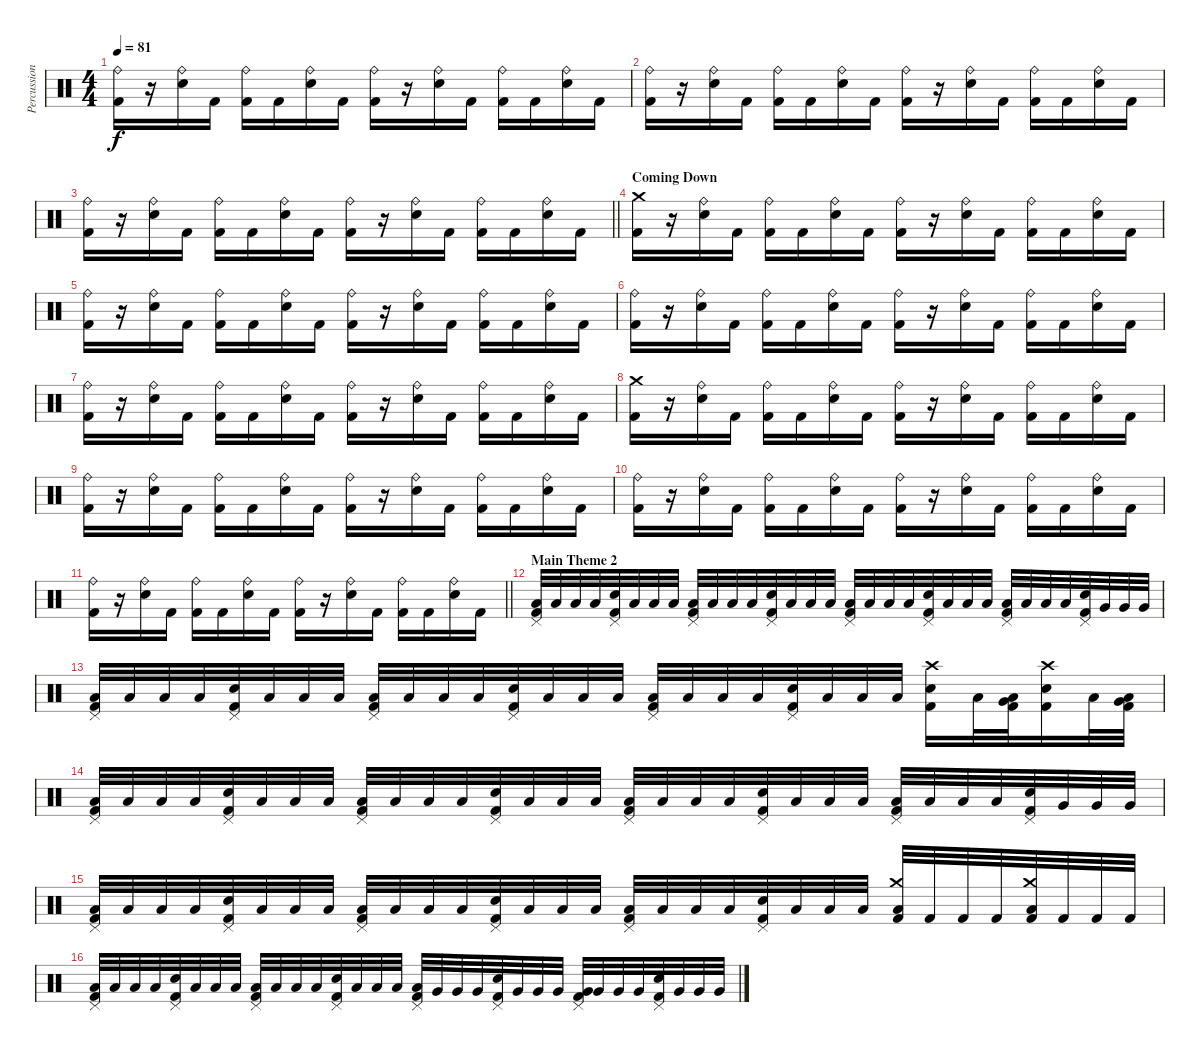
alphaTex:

\track ("Percussion" "Percussion") {instrument percussion}
\staff {score}
\articulation defaults
\ts (4 4)
\tempo 81
\clef neutral
\ks c
("Ride (bell)" "Kick (hit) 2").16{dy f} r.16 ("Ride (bell)" "Electric Snare (hit)").16 "Kick (hit) 2".16 ("Ride (bell)" "Kick (hit) 2").16 "Kick (hit) 2".16 ("Ride (bell)" "Electric Snare (hit)").16 "Kick (hit) 2".16 ("Ride (bell)" "Kick (hit) 2").16 r.16 ("Ride (bell)" "Electric Snare (hit)").16 "Kick (hit) 2".16 ("Ride (bell)" "Kick (hit) 2").16 "Kick (hit) 2".16 ("Ride (bell)" "Electric Snare (hit)").16 "Kick (hit) 2".16 |
("Ride (bell)" "Kick (hit) 2").16 r.16 ("Ride (bell)" "Electric Snare (hit)").16 "Kick (hit) 2".16 ("Ride (bell)" "Kick (hit) 2").16 "Kick (hit) 2".16 ("Ride (bell)" "Electric Snare (hit)").16 "Kick (hit) 2".16 ("Ride (bell)" "Kick (hit) 2").16 r.16 ("Ride (bell)" "Electric Snare (hit)").16 "Kick (hit) 2".16 ("Ride (bell)" "Kick (hit) 2").16 "Kick (hit) 2".16 ("Ride (bell)" "Electric Snare (hit)").16 "Kick (hit) 2".16 |
\barLineRight lightlight
("Ride (bell)" "Kick (hit) 2").16 r.16 ("Ride (bell)" "Electric Snare (hit)").16 "Kick (hit) 2".16 ("Ride (bell)" "Kick (hit) 2").16 "Kick (hit) 2".16 ("Ride (bell)" "Electric Snare (hit)").16 "Kick (hit) 2".16 ("Ride (bell)" "Kick (hit) 2").16 r.16 ("Ride (bell)" "Electric Snare (hit)").16 "Kick (hit) 2".16 ("Ride (bell)" "Kick (hit) 2").16 "Kick (hit) 2".16 ("Ride (bell)" "Electric Snare (hit)").16 "Kick (hit) 2".16 |
\section ("" "Coming Down")
("Crash medium (hit)" "Kick (hit) 2").16 r.16 ("Ride (bell)" "Electric Snare (hit)").16 "Kick (hit) 2".16 ("Ride (bell)" "Kick (hit) 2").16 "Kick (hit) 2".16 ("Ride (bell)" "Electric Snare (hit)").16 "Kick (hit) 2".16 ("Ride (bell)" "Kick (hit) 2").16 r.16 ("Ride (bell)" "Electric Snare (hit)").16 "Kick (hit) 2".16 ("Ride (bell)" "Kick (hit) 2").16 "Kick (hit) 2".16 ("Ride (bell)" "Electric Snare (hit)").16 "Kick (hit) 2".16 |
("Ride (bell)" "Kick (hit) 2").16 r.16 ("Ride (bell)" "Electric Snare (hit)").16 "Kick (hit) 2".16 ("Ride (bell)" "Kick (hit) 2").16 "Kick (hit) 2".16 ("Ride (bell)" "Electric Snare (hit)").16 "Kick (hit) 2".16 ("Ride (bell)" "Kick (hit) 2").16 r.16 ("Ride (bell)" "Electric Snare (hit)").16 "Kick (hit) 2".16 ("Ride (bell)" "Kick (hit) 2").16 "Kick (hit) 2".16 ("Ride (bell)" "Electric Snare (hit)").16 "Kick (hit) 2".16 |
("Ride (bell)" "Kick (hit) 2").16 r.16 ("Ride (bell)" "Electric Snare (hit)").16 "Kick (hit) 2".16 ("Ride (bell)" "Kick (hit) 2").16 "Kick (hit) 2".16 ("Ride (bell)" "Electric Snare (hit)").16 "Kick (hit) 2".16 ("Ride (bell)" "Kick (hit) 2").16 r.16 ("Ride (bell)" "Electric Snare (hit)").16 "Kick (hit) 2".16 ("Ride (bell)" "Kick (hit) 2").16 "Kick (hit) 2".16 ("Ride (bell)" "Electric Snare (hit)").16 "Kick (hit) 2".16 |
("Ride (bell)" "Kick (hit) 2").16 r.16 ("Ride (bell)" "Electric Snare (hit)").16 "Kick (hit) 2".16 ("Ride (bell)" "Kick (hit) 2").16 "Kick (hit) 2".16 ("Ride (bell)" "Electric Snare (hit)").16 "Kick (hit) 2".16 ("Ride (bell)" "Kick (hit) 2").16 r.16 ("Ride (bell)" "Electric Snare (hit)").16 "Kick (hit) 2".16 ("Ride (bell)" "Kick (hit) 2").16 "Kick (hit) 2".16 ("Ride (bell)" "Electric Snare (hit)").16 "Kick (hit) 2".16 |
("Crash medium (hit)" "Kick (hit) 2").16 r.16 ("Ride (bell)" "Electric Snare (hit)").16 "Kick (hit) 2".16 ("Ride (bell)" "Kick (hit) 2").16 "Kick (hit) 2".16 ("Ride (bell)" "Electric Snare (hit)").16 "Kick (hit) 2".16 ("Ride (bell)" "Kick (hit) 2").16 r.16 ("Ride (bell)" "Electric Snare (hit)").16 "Kick (hit) 2".16 ("Ride (bell)" "Kick (hit) 2").16 "Kick (hit) 2".16 ("Ride (bell)" "Electric Snare (hit)").16 "Kick (hit) 2".16 |
("Ride (bell)" "Kick (hit) 2").16 r.16 ("Ride (bell)" "Electric Snare (hit)").16 "Kick (hit) 2".16 ("Ride (bell)" "Kick (hit) 2").16 "Kick (hit) 2".16 ("Ride (bell)" "Electric Snare (hit)").16 "Kick (hit) 2".16 ("Ride (bell)" "Kick (hit) 2").16 r.16 ("Ride (bell)" "Electric Snare (hit)").16 "Kick (hit) 2".16 ("Ride (bell)" "Kick (hit) 2").16 "Kick (hit) 2".16 ("Ride (bell)" "Electric Snare (hit)").16 "Kick (hit) 2".16 |
("Ride (bell)" "Kick (hit) 2").16 r.16 ("Ride (bell)" "Electric Snare (hit)").16 "Kick (hit) 2".16 ("Ride (bell)" "Kick (hit) 2").16 "Kick (hit) 2".16 ("Ride (bell)" "Electric Snare (hit)").16 "Kick (hit) 2".16 ("Ride (bell)" "Kick (hit) 2").16 r.16 ("Ride (bell)" "Electric Snare (hit)").16 "Kick (hit) 2".16 ("Ride (bell)" "Kick (hit) 2").16 "Kick (hit) 2".16 ("Ride (bell)" "Electric Snare (hit)").16 "Kick (hit) 2".16 |
\barLineRight lightlight
("Ride (bell)" "Kick (hit) 2").16 r.16 ("Ride (bell)" "Electric Snare (hit)").16 "Kick (hit) 2".16 ("Ride (bell)" "Kick (hit) 2").16 "Kick (hit) 2".16 ("Ride (bell)" "Electric Snare (hit)").16 "Kick (hit) 2".16 ("Ride (bell)" "Kick (hit) 2").16 r.16 ("Ride (bell)" "Electric Snare (hit)").16 "Kick (hit) 2".16 ("Ride (bell)" "Kick (hit) 2").16 "Kick (hit) 2".16 ("Ride (bell)" "Electric Snare (hit)").16 "Kick (hit) 2".16 |
\section ("" "Main Theme 2")
("Pedal Hi-Hat (hit)" "Low Floor Tom (hit)" "Kick (hit) 2").32 "Low Floor Tom (hit)".32 "Low Floor Tom (hit)".32 "Low Floor Tom (hit)".32 ("Pedal Hi-Hat (hit)" "Electric Snare (hit)" "Kick (hit) 2").32 "Low Floor Tom (hit)".32 "Low Floor Tom (hit)".32 "Low Floor Tom (hit)".32 ("Pedal Hi-Hat (hit)" "Low Floor Tom (hit)" "Kick (hit) 2").32 "Low Floor Tom (hit)".32 "Low Floor Tom (hit)".32 "Low Floor Tom (hit)".32 ("Pedal Hi-Hat (hit)" "Electric Snare (hit)" "Kick (hit) 2").32 "Low Floor Tom (hit)".32 "Low Floor Tom (hit)".32 "Low Floor Tom (hit)".32 ("Pedal Hi-Hat (hit)" "Low Floor Tom (hit)" "Kick (hit) 2").32 "Low Floor Tom (hit)".32 "Low Floor Tom (hit)".32 "Low Floor Tom (hit)".32 ("Pedal Hi-Hat (hit)" "Electric Snare (hit)" "Kick (hit) 2").32 "Low Floor Tom (hit)".32 "Low Floor Tom (hit)".32 "Low Floor Tom (hit)".32 ("Pedal Hi-Hat (hit)" "Low Floor Tom (hit)" "Kick (hit) 2").32 "Low Floor Tom (hit)".32 "Low Floor Tom (hit)".32 "Low Floor Tom (hit)".32 ("Pedal Hi-Hat (hit)" "Electric Snare (hit)" "Kick (hit) 2").32 "Very Low Tom (hit)".32 "Very Low Tom (hit)".32 "Very Low Tom (hit)".32 |
("Pedal Hi-Hat (hit)" "Low Floor Tom (hit)" "Kick (hit) 2").32 "Low Floor Tom (hit)".32 "Low Floor Tom (hit)".32 "Low Floor Tom (hit)".32 ("Pedal Hi-Hat (hit)" "Electric Snare (hit)" "Kick (hit) 2").32 "Low Floor Tom (hit)".32 "Low Floor Tom (hit)".32 "Low Floor Tom (hit)".32 ("Pedal Hi-Hat (hit)" "Low Floor Tom (hit)" "Kick (hit) 2").32 "Low Floor Tom (hit)".32 "Low Floor Tom (hit)".32 "Low Floor Tom (hit)".32 ("Pedal Hi-Hat (hit)" "Electric Snare (hit)" "Kick (hit) 2").32 "Low Floor Tom (hit)".32 "Low Floor Tom (hit)".32 "Low Floor Tom (hit)".32 ("Pedal Hi-Hat (hit)" "Low Floor Tom (hit)" "Kick (hit) 2").32 "Low Floor Tom (hit)".32 "Low Floor Tom (hit)".32 "Low Floor Tom (hit)".32 ("Pedal Hi-Hat (hit)" "Electric Snare (hit)" "Kick (hit) 2").32 "Low Floor Tom (hit)".32 "Low Floor Tom (hit)".32 "Low Floor Tom (hit)".32 ("Crash high (hit)" "Electric Snare (hit)" "Kick (hit) 2").16 "Low Floor Tom (hit)".32 ("Very Low Tom (hit)" "Low Floor Tom (hit)" "Kick (hit) 2").32 ("Crash high (hit)" "Electric Snare (hit)" "Kick (hit) 2").16 "Low Floor Tom (hit)".32 ("Very Low Tom (hit)" "Low Floor Tom (hit)" "Kick (hit) 2").32 |
("Pedal Hi-Hat (hit)" "Low Floor Tom (hit)" "Kick (hit) 2").32 "Low Floor Tom (hit)".32 "Low Floor Tom (hit)".32 "Low Floor Tom (hit)".32 ("Pedal Hi-Hat (hit)" "Electric Snare (hit)" "Kick (hit) 2").32 "Low Floor Tom (hit)".32 "Low Floor Tom (hit)".32 "Low Floor Tom (hit)".32 ("Pedal Hi-Hat (hit)" "Low Floor Tom (hit)" "Kick (hit) 2").32 "Low Floor Tom (hit)".32 "Low Floor Tom (hit)".32 "Low Floor Tom (hit)".32 ("Pedal Hi-Hat (hit)" "Electric Snare (hit)" "Kick (hit) 2").32 "Low Floor Tom (hit)".32 "Low Floor Tom (hit)".32 "Low Floor Tom (hit)".32 ("Pedal Hi-Hat (hit)" "Low Floor Tom (hit)" "Kick (hit) 2").32 "Low Floor Tom (hit)".32 "Low Floor Tom (hit)".32 "Low Floor Tom (hit)".32 ("Pedal Hi-Hat (hit)" "Electric Snare (hit)" "Kick (hit) 2").32 "Low Floor Tom (hit)".32 "Low Floor Tom (hit)".32 "Low Floor Tom (hit)".32 ("Pedal Hi-Hat (hit)" "Low Floor Tom (hit)" "Kick (hit) 2").32 "Low Floor Tom (hit)".32 "Low Floor Tom (hit)".32 "Low Floor Tom (hit)".32 ("Pedal Hi-Hat (hit)" "Electric Snare (hit)" "Kick (hit) 2").32 "Very Low Tom (hit)".32 "Very Low Tom (hit)".32 "Very Low Tom (hit)".32 |
("Pedal Hi-Hat (hit)" "Low Floor Tom (hit)" "Kick (hit) 2").32 "Low Floor Tom (hit)".32 "Low Floor Tom (hit)".32 "Low Floor Tom (hit)".32 ("Pedal Hi-Hat (hit)" "Electric Snare (hit)" "Kick (hit) 2").32 "Low Floor Tom (hit)".32 "Low Floor Tom (hit)".32 "Low Floor Tom (hit)".32 ("Pedal Hi-Hat (hit)" "Low Floor Tom (hit)" "Kick (hit) 2").32 "Low Floor Tom (hit)".32 "Low Floor Tom (hit)".32 "Low Floor Tom (hit)".32 ("Pedal Hi-Hat (hit)" "Electric Snare (hit)" "Kick (hit) 2").32 "Low Floor Tom (hit)".32 "Low Floor Tom (hit)".32 "Low Floor Tom (hit)".32 ("Pedal Hi-Hat (hit)" "Low Floor Tom (hit)" "Kick (hit) 2").32 "Low Floor Tom (hit)".32 "Low Floor Tom (hit)".32 "Low Floor Tom (hit)".32 ("Pedal Hi-Hat (hit)" "Electric Snare (hit)" "Kick (hit) 2").32 "Low Floor Tom (hit)".32 "Low Floor Tom (hit)".32 "Low Floor Tom (hit)".32 ("Crash medium (hit)" "Low Floor Tom (hit)" "Kick (hit) 2").32 "Kick (hit) 2".32 "Kick (hit) 2".32 "Kick (hit) 2".32 ("Crash medium (hit)" "Low Floor Tom (hit)" "Kick (hit) 2").32 "Kick (hit) 2".32 "Kick (hit) 2".32 "Kick (hit) 2".32 |
("Pedal Hi-Hat (hit)" "Low Tom (hit)" "Kick (hit) 2").32 "Low Tom (hit)".32 "Low Tom (hit)".32 "Low Tom (hit)".32 ("Pedal Hi-Hat (hit)" "Electric Snare (hit)" "Kick (hit) 2").32 "Low Tom (hit)".32 "Low Tom (hit)".32 "Low Tom (hit)".32 ("Pedal Hi-Hat (hit)" "Low Tom (hit)" "Kick (hit) 2").32 "Low Tom (hit)".32 "Low Tom (hit)".32 "Low Tom (hit)".32 ("Pedal Hi-Hat (hit)" "Electric Snare (hit)" "Kick (hit) 2").32 "Low Tom (hit)".32 "Low Tom (hit)".32 "Low Tom (hit)".32 ("Pedal Hi-Hat (hit)" "Low Tom (hit)" "Kick (hit) 2").32 "Very Low Tom (hit)".32 "Very Low Tom (hit)".32 "Very Low Tom (hit)".32 ("Pedal Hi-Hat (hit)" "Electric Snare (hit)" "Kick (hit) 2").32 "Very Low Tom (hit)".32 "Very Low Tom (hit)".32 "Very Low Tom (hit)".32 ("Pedal Hi-Hat (hit)" "Very Low Tom (hit)" "Kick (hit) 2").32 "Very Low Tom (hit)".32 "Very Low Tom (hit)".32 "Very Low Tom (hit)".32 ("Pedal Hi-Hat (hit)" "Electric Snare (hit)" "Kick (hit) 2").32 "Very Low Tom (hit)".32 "Very Low Tom (hit)".32 "Very Low Tom (hit)".32
